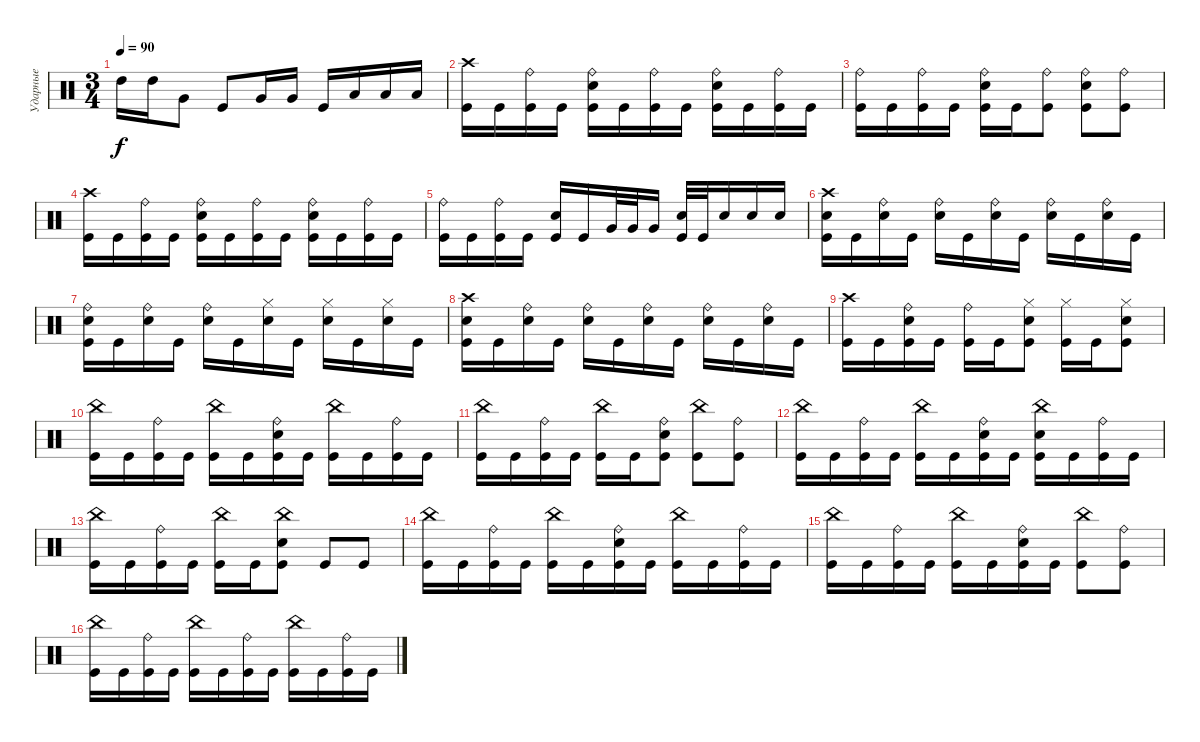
\track ("Ударные" "Ударные") {instrument percussion}
\staff {score}
\articulation defaults
\ts (3 4)
\tempo 90
\clef neutral
\ks c "High Tom (hit)".16{dy f} "High Tom (hit)".16 "Very Low Tom (hit)".8 "Kick (hit)".8 "Very Low Tom (hit)".16 "Very Low Tom (hit)".16 "Kick (hit)".16 "Low Tom (hit)".16 "Low Tom (hit)".16 "Low Tom (hit)".16
|
("Crash high (hit)" "Kick (hit)").16 "Kick (hit)".16 ("Ride (bell)" "Kick (hit)").16 "Kick (hit)".16 ("Ride (bell)" "Electric Snare (hit)" "Kick (hit)").16 "Kick (hit)".16 ("Ride (bell)" "Kick (hit)").16 "Kick (hit)".16 ("Ride (bell)" "Electric Snare (hit)" "Kick (hit)").16 "Kick (hit)".16 ("Ride (bell)" "Kick (hit)").16 "Kick (hit)".16 |
("Ride (bell)" "Kick (hit)").16 "Kick (hit)".16 ("Ride (bell)" "Kick (hit)").16 "Kick (hit)".16 ("Ride (bell)" "Electric Snare (hit)" "Kick (hit)").16 "Kick (hit)".16 ("Ride (bell)" "Kick (hit)").8 ("Ride (bell)" "Electric Snare (hit)" "Kick (hit)").8 ("Ride (bell)" "Kick (hit)").8 |
("Crash high (hit)" "Kick (hit)").16 "Kick (hit)".16 ("Ride (bell)" "Kick (hit)").16 "Kick (hit)".16 ("Ride (bell)" "Electric Snare (hit)" "Kick (hit)").16 "Kick (hit)".16 ("Ride (bell)" "Kick (hit)").16 "Kick (hit)".16 ("Ride (bell)" "Electric Snare (hit)" "Kick (hit)").16 "Kick (hit)".16 ("Ride (bell)" "Kick (hit)").16 "Kick (hit)".16 |
("Ride (bell)" "Kick (hit)").16 "Kick (hit)".16 ("Ride (bell)" "Kick (hit)").16 "Kick (hit)".16 ("Electric Snare (hit)" "Kick (hit)").16 "Kick (hit)".16 "Very Low Tom (hit)".32 "Very Low Tom (hit)".32 "Very Low Tom (hit)".16 ("Electric Snare (hit)" "Kick (hit)").32 "Kick (hit)".32 "Electric Snare (hit)".16 "Electric Snare (hit)".16 "Electric Snare (hit)".16 |
("Crash high (hit)" "Electric Snare (hit)" "Kick (hit)").16 "Kick (hit)".16 ("Ride (bell)" "Electric Snare (hit)").16 "Kick (hit)".16 ("Ride (bell)" "Electric Snare (hit)").16 "Kick (hit)".16 ("Ride (bell)" "Electric Snare (hit)").16 "Kick (hit)".16 ("Ride (bell)" "Electric Snare (hit)").16 "Kick (hit)".16 ("Ride (bell)" "Electric Snare (hit)").16 "Kick (hit)".16 |
("Ride (bell)" "Electric Snare (hit)" "Kick (hit)").16 "Kick (hit)".16 ("Ride (bell)" "Electric Snare (hit)").16 "Kick (hit)".16 ("Ride (bell)" "Electric Snare (hit)").16 "Kick (hit)".16 ("Hi-Hat (closed)" "Electric Snare (hit)").16 "Kick (hit)".16 ("Hi-Hat (closed)" "Electric Snare (hit)").16 "Kick (hit)".16 ("Hi-Hat (closed)" "Electric Snare (hit)").16 "Kick (hit)".16 |
("Crash high (hit)" "Electric Snare (hit)" "Kick (hit)").16 "Kick (hit)".16 ("Ride (bell)" "Electric Snare (hit)").16 "Kick (hit)".16 ("Ride (bell)" "Electric Snare (hit)").16 "Kick (hit)".16 ("Ride (bell)" "Electric Snare (hit)").16 "Kick (hit)".16 ("Ride (bell)" "Electric Snare (hit)").16 "Kick (hit)".16 ("Ride (bell)" "Electric Snare (hit)").16 "Kick (hit)".16 |
("Crash high (hit)" "Kick (hit)").16 "Kick (hit)".16 ("Ride (bell)" "Electric Snare (hit)" "Kick (hit)").16 "Kick (hit)".16 ("Ride (bell)" "Kick (hit)").16 "Kick (hit)".16 ("Hi-Hat (closed)" "Electric Snare (hit)" "Kick (hit)").8 ("Hi-Hat (closed)" "Kick (hit)").16 "Kick (hit)".16 ("Hi-Hat (closed)" "Electric Snare (hit)" "Kick (hit)").8 |
("China (hit)" "Kick (hit)").16 "Kick (hit)".16 ("Ride (bell)" "Kick (hit)").16 "Kick (hit)".16 ("China (hit)" "Kick (hit)").16 "Kick (hit)".16 ("Ride (bell)" "Electric Snare (hit)" "Kick (hit)").16 "Kick (hit)".16 ("China (hit)" "Kick (hit)").16 "Kick (hit)".16 ("Ride (bell)" "Kick (hit)").16 "Kick (hit)".16 |
("China (hit)" "Kick (hit)").16 "Kick (hit)".16 ("Ride (bell)" "Kick (hit)").16 "Kick (hit)".16 ("China (hit)" "Kick (hit)").16 "Kick (hit)".16 ("Ride (bell)" "Electric Snare (hit)" "Kick (hit)").8 ("China (hit)" "Kick (hit)").8 ("Ride (bell)" "Kick (hit)").8 |
("China (hit)" "Kick (hit)").16 "Kick (hit)".16 ("Ride (bell)" "Kick (hit)").16 "Kick (hit)".16 ("China (hit)" "Kick (hit)").16 "Kick (hit)".16 ("Ride (bell)" "Electric Snare (hit)" "Kick (hit)").16 "Kick (hit)".16 ("China (hit)" "Electric Snare (hit)" "Kick (hit)").16 "Kick (hit)".16 ("Ride (bell)" "Kick (hit)").16 "Kick (hit)".16 |
("China (hit)" "Kick (hit)").16 "Kick (hit)".16 ("Ride (bell)" "Kick (hit)").16 "Kick (hit)".16 ("China (hit)" "Kick (hit)").16 "Kick (hit)".16 ("China (hit)" "Electric Snare (hit)" "Kick (hit)").8 "Kick (hit)".8 "Kick (hit)".8 |
("China (hit)" "Kick (hit)").16 "Kick (hit)".16 ("Ride (bell)" "Kick (hit)").16 "Kick (hit)".16 ("China (hit)" "Kick (hit)").16 "Kick (hit)".16 ("Ride (bell)" "Electric Snare (hit)" "Kick (hit)").16 "Kick (hit)".16 ("China (hit)" "Kick (hit)").16 "Kick (hit)".16 ("Ride (bell)" "Kick (hit)").16 "Kick (hit)".16 |
("China (hit)" "Kick (hit)").16 "Kick (hit)".16 ("Ride (bell)" "Kick (hit)").16 "Kick (hit)".16 ("China (hit)" "Kick (hit)").16 "Kick (hit)".16 ("Ride (bell)" "Electric Snare (hit)" "Kick (hit)").16 "Kick (hit)".16 ("China (hit)" "Kick (hit)").8 ("Ride (bell)" "Kick (hit)").8 |
("China (hit)" "Kick (hit)").16 "Kick (hit)".16 ("Ride (bell)" "Kick (hit)").16 "Kick (hit)".16 ("China (hit)" "Kick (hit)").16 "Kick (hit)".16 ("Ride (bell)" "Kick (hit)").16 "Kick (hit)".16 ("China (hit)" "Kick (hit)").16 "Kick (hit)".16 ("Ride (bell)" "Kick (hit)").16 "Kick (hit)".16
